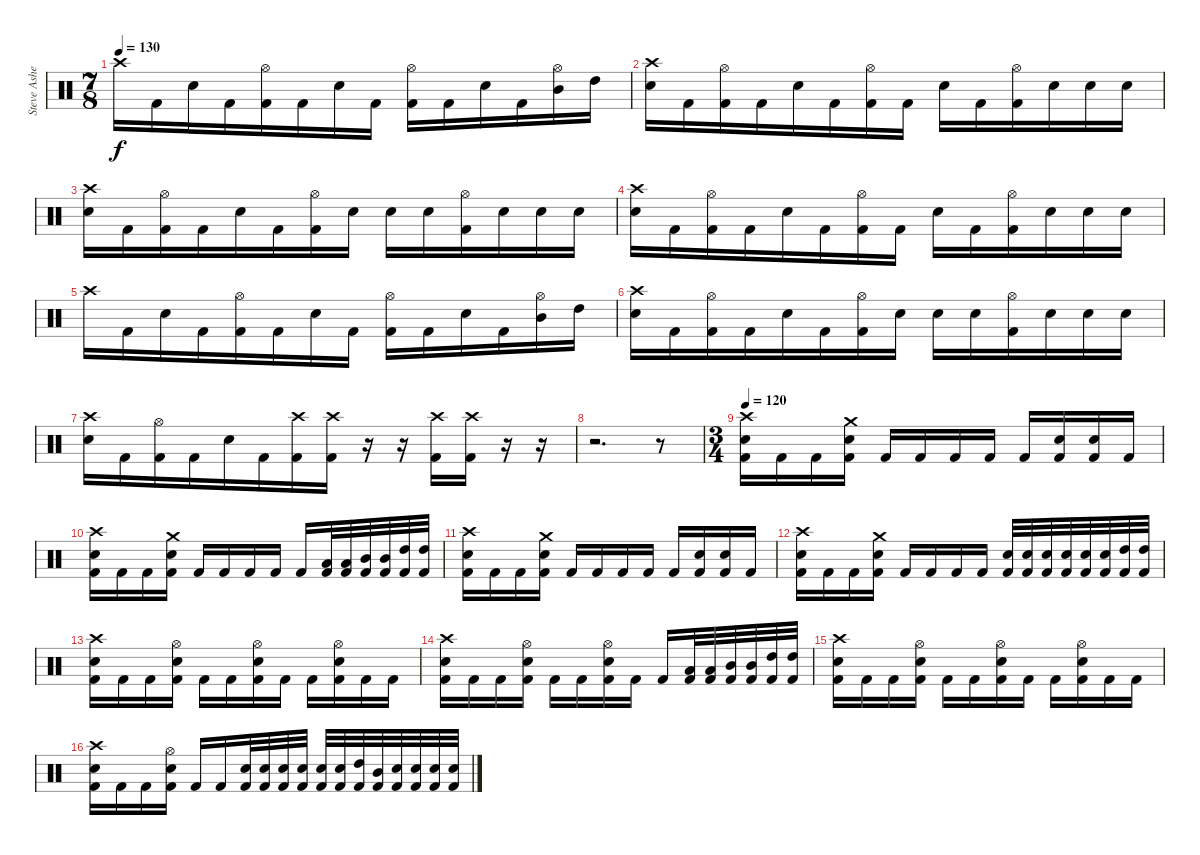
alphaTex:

\track ("Steve Asheim" "Steve Ashe") {instrument percussion}
\staff {score}
\articulation defaults
\ts (7 8)
\tempo 130
\clef neutral
\ks c "Crash high (hit)".16{dy f} "Kick (hit) 2".16 "Electric Snare (hit)".16 "Kick (hit) 2".16
("Hi-Hat (open)" "Kick (hit) 2").16 "Kick (hit) 2".16 "Electric Snare (hit)".16 "Kick (hit) 2".16 ("Hi-Hat (open)" "Kick (hit) 2").16 "Kick (hit) 2".16 "Electric Snare (hit)".16 "Kick (hit) 2".16 ("Hi-Hat (open)" "Mid Tom (hit)").16 "High Tom (hit)".16 |
("Crash high (hit)" "Electric Snare (hit)").16 "Kick (hit) 2".16 ("Hi-Hat (open)" "Kick (hit) 2").16 "Kick (hit) 2".16 "Electric Snare (hit)".16 "Kick (hit) 2".16 ("Hi-Hat (open)" "Kick (hit) 2").16 "Kick (hit) 2".16 "Electric Snare (hit)".16 "Kick (hit) 2".16 ("Hi-Hat (open)" "Kick (hit) 2").16 "Snare (hit) 2".16 "Snare (hit) 2".16 "Snare (hit) 2".16 |
("Crash high (hit)" "Electric Snare (hit)").16 "Kick (hit) 2".16 ("Hi-Hat (open)" "Kick (hit) 2").16 "Kick (hit) 2".16 "Electric Snare (hit)".16 "Kick (hit) 2".16 ("Hi-Hat (open)" "Kick (hit) 2").16 "Snare (hit) 2".16 "Snare (hit) 2".16 "Snare (hit) 2".16 ("Hi-Hat (open)" "Kick (hit) 2").16 "Snare (hit) 2".16 "Snare (hit) 2".16 "Snare (hit) 2".16 |
("Crash high (hit)" "Electric Snare (hit)").16 "Kick (hit) 2".16 ("Hi-Hat (open)" "Kick (hit) 2").16 "Kick (hit) 2".16 "Electric Snare (hit)".16 "Kick (hit) 2".16 ("Hi-Hat (open)" "Kick (hit) 2").16 "Kick (hit) 2".16 "Electric Snare (hit)".16 "Kick (hit) 2".16 ("Hi-Hat (open)" "Kick (hit) 2").16 "Snare (hit) 2".16 "Snare (hit) 2".16 "Snare (hit) 2".16 |
"Crash high (hit)".16 "Kick (hit) 2".16 "Electric Snare (hit)".16 "Kick (hit) 2".16 ("Hi-Hat (open)" "Kick (hit) 2").16 "Kick (hit) 2".16 "Electric Snare (hit)".16 "Kick (hit) 2".16 ("Hi-Hat (open)" "Kick (hit) 2").16 "Kick (hit) 2".16 "Electric Snare (hit)".16 "Kick (hit) 2".16 ("Hi-Hat (open)" "Mid Tom (hit)").16 "High Tom (hit)".16 |
("Crash high (hit)" "Electric Snare (hit)").16 "Kick (hit) 2".16 ("Hi-Hat (open)" "Kick (hit) 2").16 "Kick (hit) 2".16 "Electric Snare (hit)".16 "Kick (hit) 2".16 ("Hi-Hat (open)" "Kick (hit) 2").16 "Snare (hit) 2".16 "Snare (hit) 2".16 "Snare (hit) 2".16 ("Hi-Hat (open)" "Kick (hit) 2").16 "Snare (hit) 2".16 "Snare (hit) 2".16 "Snare (hit) 2".16 |
("Crash high (hit)" "Electric Snare (hit)").16 "Kick (hit) 2".16 ("Hi-Hat (open)" "Kick (hit) 2").16 "Kick (hit) 2".16 "Electric Snare (hit)".16 "Kick (hit) 2".16 ("Crash high (hit)" "Kick (hit) 2").16 ("Crash high (hit)" "Kick (hit) 2").16 r.16 r.16 ("Crash high (hit)" "Kick (hit) 2").16 ("Crash high (hit)" "Kick (hit) 2").16 r.16 r.16 |
r.2{d} r.8 |
\ts (3 4)
\tempo 120
("Crash high (hit)" "Electric Snare (hit)" "Kick (hit) 2").16 "Kick (hit) 2".16 "Kick (hit) 2".16 ("Crash medium (hit)" "Electric Snare (hit)" "Kick (hit) 2").16 "Kick (hit) 2".16 "Kick (hit) 2".16 "Kick (hit) 2".16 "Kick (hit) 2".16 "Kick (hit) 2".16 ("Electric Snare (hit)" "Kick (hit) 2").16 ("Electric Snare (hit)" "Kick (hit) 2").16 "Kick (hit) 2".16 |
("Crash high (hit)" "Electric Snare (hit)" "Kick (hit) 2").16 "Kick (hit) 2".16 "Kick (hit) 2".16 ("Crash medium (hit)" "Electric Snare (hit)" "Kick (hit) 2").16 "Kick (hit) 2".16 "Kick (hit) 2".16 "Kick (hit) 2".16 "Kick (hit) 2".16 "Kick (hit) 2".16 ("Low Floor Tom (hit)" "Kick (hit) 2").32 ("Low Tom (hit)" "Kick (hit) 2").32 ("Mid Tom (hit)" "Kick (hit) 2").32 ("Mid Tom (hit)" "Kick (hit) 2").32 ("High Tom (hit)" "Kick (hit) 2").32 ("High Tom (hit)" "Kick (hit) 2").32 |
("Crash high (hit)" "Electric Snare (hit)" "Kick (hit) 2").16 "Kick (hit) 2".16 "Kick (hit) 2".16 ("Crash medium (hit)" "Electric Snare (hit)" "Kick (hit) 2").16 "Kick (hit) 2".16 "Kick (hit) 2".16 "Kick (hit) 2".16 "Kick (hit) 2".16 "Kick (hit) 2".16 ("Electric Snare (hit)" "Kick (hit) 2").16 ("Electric Snare (hit)" "Kick (hit) 2").16 "Kick (hit) 2".16 |
("Crash high (hit)" "Electric Snare (hit)" "Kick (hit) 2").16 "Kick (hit) 2".16 "Kick (hit) 2".16 ("Crash medium (hit)" "Electric Snare (hit)" "Kick (hit) 2").16 "Kick (hit) 2".16 "Kick (hit) 2".16 "Kick (hit) 2".16 "Kick (hit) 2".16 ("Electric Snare (hit)" "Kick (hit) 2").32 ("Electric Snare (hit)" "Kick (hit) 2").32 ("Electric Snare (hit)" "Kick (hit) 2").32 ("Electric Snare (hit)" "Kick (hit) 2").32 ("Electric Snare (hit)" "Kick (hit) 2").32 ("Electric Snare (hit)" "Kick (hit) 2").32 ("High Tom (hit)" "Kick (hit) 2").32 ("High Tom (hit)" "Kick (hit) 2").32 |
("Crash high (hit)" "Electric Snare (hit)" "Kick (hit) 2").16 "Kick (hit) 2".16 "Kick (hit) 2".16 ("Hi-Hat (open)" "Electric Snare (hit)" "Kick (hit) 2").16 "Kick (hit) 2".16 "Kick (hit) 2".16 ("Hi-Hat (open)" "Electric Snare (hit)" "Kick (hit) 2").16 "Kick (hit) 2".16 "Kick (hit) 2".16 ("Hi-Hat (open)" "Electric Snare (hit)" "Kick (hit) 2").16 "Kick (hit) 2".16 "Kick (hit) 2".16 |
("Crash high (hit)" "Electric Snare (hit)" "Kick (hit) 2").16 "Kick (hit) 2".16 "Kick (hit) 2".16 ("Hi-Hat (open)" "Electric Snare (hit)" "Kick (hit) 2").16 "Kick (hit) 2".16 "Kick (hit) 2".16 ("Hi-Hat (open)" "Electric Snare (hit)" "Kick (hit) 2").16 "Kick (hit) 2".16 "Kick (hit) 2".16 ("Low Floor Tom (hit)" "Kick (hit) 2").32 ("Low Tom (hit)" "Kick (hit) 2").32 ("Mid Tom (hit)" "Kick (hit) 2").32 ("Mid Tom (hit)" "Kick (hit) 2").32 ("High Tom (hit)" "Kick (hit) 2").32 ("High Tom (hit)" "Kick (hit) 2").32 |
("Crash high (hit)" "Electric Snare (hit)" "Kick (hit) 2").16 "Kick (hit) 2".16 "Kick (hit) 2".16 ("Hi-Hat (open)" "Electric Snare (hit)" "Kick (hit) 2").16 "Kick (hit) 2".16 "Kick (hit) 2".16 ("Hi-Hat (open)" "Electric Snare (hit)" "Kick (hit) 2").16 "Kick (hit) 2".16 "Kick (hit) 2".16 ("Hi-Hat (open)" "Electric Snare (hit)" "Kick (hit) 2").16 "Kick (hit) 2".16 "Kick (hit) 2".16 |
("Crash high (hit)" "Electric Snare (hit)" "Kick (hit) 2").16 "Kick (hit) 2".16 "Kick (hit) 2".16 ("Hi-Hat (open)" "Electric Snare (hit)" "Kick (hit) 2").16 "Kick (hit) 2".16 "Kick (hit) 2".16 ("Electric Snare (hit)" "Kick (hit) 2").32 ("Electric Snare (hit)" "Kick (hit) 2").32 ("Electric Snare (hit)" "Kick (hit) 2").32 ("Electric Snare (hit)" "Kick (hit) 2").32 ("Electric Snare (hit)" "Kick (hit) 2").32 ("Electric Snare (hit)" "Kick (hit) 2").32 ("High Tom (hit)" "Kick (hit) 2").32 ("Mid Tom (hit)" "Kick (hit) 2").32 ("Electric Snare (hit)" "Kick (hit) 2").32 ("Electric Snare (hit)" "Kick (hit) 2").32 ("Electric Snare (hit)" "Kick (hit) 2").32 ("Electric Snare (hit)" "Kick (hit) 2").32
